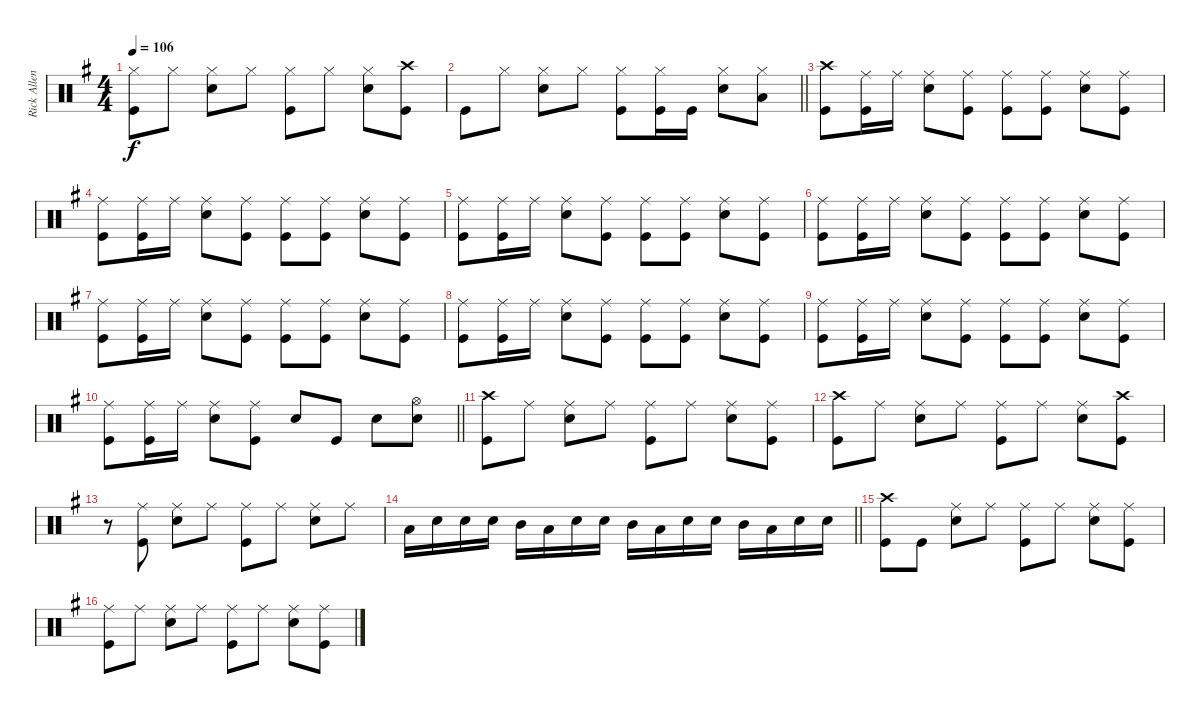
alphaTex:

\track ("Rick Allen \"Thundergood\"" "Rick Allen") {instrument percussion}
\staff {score}
\articulation defaults
\ts (4 4)
\tempo 106
\clef neutral
\ks eminor
("Hi-Hat (closed)" "Kick (hit)").8{dy f} "Hi-Hat (closed)".8 ("Hi-Hat (closed)" "Snare (hit) 2").8 "Hi-Hat (closed)".8 ("Hi-Hat (closed)" "Kick (hit)").8 "Hi-Hat (closed)".8 ("Hi-Hat (closed)" "Snare (hit) 2").8 ("Crash high (hit)" "Kick (hit)").8 |
\barLineRight lightlight "Kick (hit)".8 "Hi-Hat (closed)".8
("Hi-Hat (closed)" "Snare (hit) 2").8 "Hi-Hat (closed)".8 ("Hi-Hat (closed)" "Kick (hit)").8 ("Hi-Hat (closed)" "Kick (hit)").16 "Kick (hit)".16 ("Hi-Hat (closed)" "Snare (hit) 2").8 ("Hi-Hat (closed)" "Low Tom (hit)").8 |
("Crash high (hit)" "Kick (hit)").8 ("Ride (middle)" "Kick (hit)").16 "Ride (middle)".16 ("Ride (middle)" "Snare (hit) 2").8 ("Ride (middle)" "Kick (hit)").8 ("Ride (middle)" "Kick (hit)").8 ("Ride (middle)" "Kick (hit)").8 ("Ride (middle)" "Snare (hit) 2").8 ("Ride (middle)" "Kick (hit)").8 |
("Ride (middle)" "Kick (hit)").8 ("Ride (middle)" "Kick (hit)").16 "Ride (middle)".16 ("Ride (middle)" "Snare (hit) 2").8 ("Ride (middle)" "Kick (hit)").8 ("Ride (middle)" "Kick (hit)").8 ("Ride (middle)" "Kick (hit)").8 ("Ride (middle)" "Snare (hit) 2").8 ("Ride (middle)" "Kick (hit)").8 |
("Ride (middle)" "Kick (hit)").8 ("Ride (middle)" "Kick (hit)").16 "Ride (middle)".16 ("Ride (middle)" "Snare (hit) 2").8 ("Ride (middle)" "Kick (hit)").8 ("Ride (middle)" "Kick (hit)").8 ("Ride (middle)" "Kick (hit)").8 ("Ride (middle)" "Snare (hit) 2").8 ("Ride (middle)" "Kick (hit)").8 |
("Ride (middle)" "Kick (hit)").8 ("Ride (middle)" "Kick (hit)").16 "Ride (middle)".16 ("Ride (middle)" "Snare (hit) 2").8 ("Ride (middle)" "Kick (hit)").8 ("Ride (middle)" "Kick (hit)").8 ("Ride (middle)" "Kick (hit)").8 ("Ride (middle)" "Snare (hit) 2").8 ("Ride (middle)" "Kick (hit)").8 |
("Ride (middle)" "Kick (hit)").8 ("Ride (middle)" "Kick (hit)").16 "Ride (middle)".16 ("Ride (middle)" "Snare (hit) 2").8 ("Ride (middle)" "Kick (hit)").8 ("Ride (middle)" "Kick (hit)").8 ("Ride (middle)" "Kick (hit)").8 ("Ride (middle)" "Snare (hit) 2").8 ("Ride (middle)" "Kick (hit)").8 |
("Ride (middle)" "Kick (hit)").8 ("Ride (middle)" "Kick (hit)").16 "Ride (middle)".16 ("Ride (middle)" "Snare (hit) 2").8 ("Ride (middle)" "Kick (hit)").8 ("Ride (middle)" "Kick (hit)").8 ("Ride (middle)" "Kick (hit)").8 ("Ride (middle)" "Snare (hit) 2").8 ("Ride (middle)" "Kick (hit)").8 |
("Ride (middle)" "Kick (hit)").8 ("Ride (middle)" "Kick (hit)").16 "Ride (middle)".16 ("Ride (middle)" "Snare (hit) 2").8 ("Ride (middle)" "Kick (hit)").8 ("Ride (middle)" "Kick (hit)").8 ("Ride (middle)" "Kick (hit)").8 ("Ride (middle)" "Snare (hit) 2").8 ("Ride (middle)" "Kick (hit)").8 |
\barLineRight lightlight
("Ride (middle)" "Kick (hit)").8 ("Ride (middle)" "Kick (hit)").16 "Ride (middle)".16 ("Ride (middle)" "Snare (hit) 2").8 ("Ride (middle)" "Kick (hit)").8 "Snare (hit) 2".8 "Kick (hit)".8 "Snare (hit) 2".8 ("Hi-Hat (open)" "Snare (hit) 2").8 |
("Crash high (hit)" "Kick (hit)").8 "Ride (middle)".8 ("Ride (middle)" "Snare (hit) 2").8 "Ride (middle)".8 ("Ride (middle)" "Kick (hit)").8 "Ride (middle)".8 ("Ride (middle)" "Snare (hit) 2").8 ("Ride (middle)" "Kick (hit)").8 |
("Crash high (hit)" "Kick (hit)").8 "Ride (middle)".8 ("Ride (middle)" "Snare (hit) 2").8 "Ride (middle)".8 ("Ride (middle)" "Kick (hit)").8 "Ride (middle)".8 ("Ride (middle)" "Snare (hit) 2").8 ("Crash high (hit)" "Kick (hit)").8 |
r.8 ("Ride (middle)" "Kick (hit)").8 ("Ride (middle)" "Snare (hit) 2").8 "Ride (middle)".8 ("Ride (middle)" "Kick (hit)").8 "Ride (middle)".8 ("Ride (middle)" "Snare (hit) 2").8 "Ride (middle)".8 |
\barLineRight lightlight "Low Tom (hit)".16 "Snare (hit) 2".16 "Snare (hit) 2".16 "Snare (hit) 2".16 "Mid Tom (hit)".16 "Low Tom (hit)".16 "Snare (hit) 2".16 "Snare (hit) 2".16 "Mid Tom (hit)".16 "Low Tom (hit)".16 "Snare (hit) 2".16 "Snare (hit) 2".16 "Mid Tom (hit)".16 "Low Tom (hit)".16 "Snare (hit) 2".16 "Snare (hit) 2".16
|
("Crash high (hit)" "Kick (hit)").8 "Kick (hit)".8 ("Ride (middle)" "Snare (hit) 2").8 "Ride (middle)".8 ("Ride (middle)" "Kick (hit)").8 "Ride (middle)".8 ("Ride (middle)" "Snare (hit) 2").8 ("Ride (middle)" "Kick (hit)").8 |
("Ride (middle)" "Kick (hit)").8 "Ride (middle)".8 ("Ride (middle)" "Snare (hit) 2").8 "Ride (middle)".8 ("Ride (middle)" "Kick (hit)").8 "Ride (middle)".8 ("Ride (middle)" "Snare (hit) 2").8 ("Ride (middle)" "Kick (hit)").8
